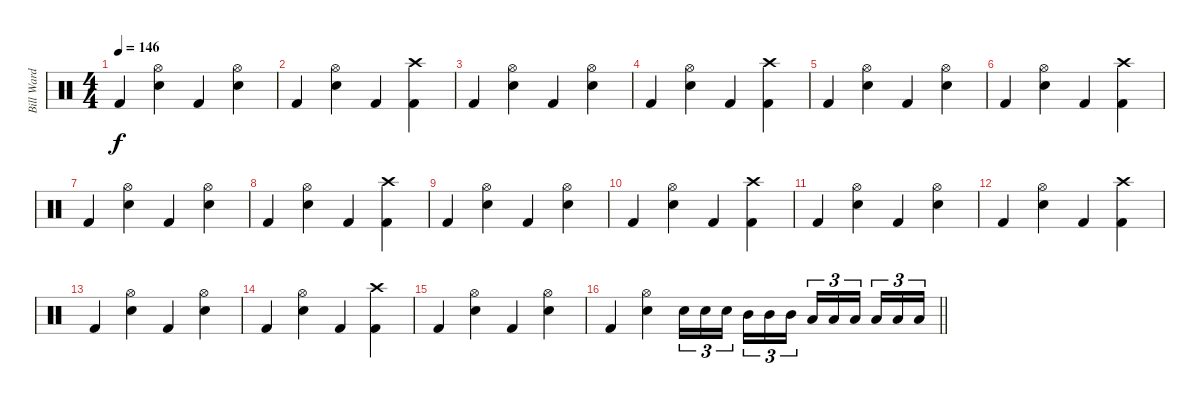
\track ("Bill Ward" "Bill Ward") {instrument percussion}
\staff {score}
\articulation defaults
\ts (4 4)
\tempo 146
\clef neutral
\ks c "Kick (hit) 2".4{dy f}
("Hi-Hat (open)" "Snare (hit) 2").4 "Kick (hit) 2".4 ("Hi-Hat (open)" "Snare (hit) 2").4 |
"Kick (hit) 2".4 ("Hi-Hat (open)" "Snare (hit) 2").4 "Kick (hit) 2".4 ("Crash high (hit)" "Kick (hit) 2").4 |
"Kick (hit) 2".4 ("Hi-Hat (open)" "Snare (hit) 2").4 "Kick (hit) 2".4 ("Hi-Hat (open)" "Snare (hit) 2").4 |
"Kick (hit) 2".4 ("Hi-Hat (open)" "Snare (hit) 2").4 "Kick (hit) 2".4 ("Crash high (hit)" "Kick (hit) 2").4 |
"Kick (hit) 2".4 ("Hi-Hat (open)" "Snare (hit) 2").4 "Kick (hit) 2".4 ("Hi-Hat (open)" "Snare (hit) 2").4 |
"Kick (hit) 2".4 ("Hi-Hat (open)" "Snare (hit) 2").4 "Kick (hit) 2".4 ("Crash high (hit)" "Kick (hit) 2").4 |
"Kick (hit) 2".4 ("Hi-Hat (open)" "Snare (hit) 2").4 "Kick (hit) 2".4 ("Hi-Hat (open)" "Snare (hit) 2").4 |
"Kick (hit) 2".4 ("Hi-Hat (open)" "Snare (hit) 2").4 "Kick (hit) 2".4 ("Crash high (hit)" "Kick (hit) 2").4 |
"Kick (hit) 2".4 ("Hi-Hat (open)" "Snare (hit) 2").4 "Kick (hit) 2".4 ("Hi-Hat (open)" "Snare (hit) 2").4 |
"Kick (hit) 2".4 ("Hi-Hat (open)" "Snare (hit) 2").4 "Kick (hit) 2".4 ("Crash high (hit)" "Kick (hit) 2").4 |
"Kick (hit) 2".4 ("Hi-Hat (open)" "Snare (hit) 2").4 "Kick (hit) 2".4 ("Hi-Hat (open)" "Snare (hit) 2").4 |
"Kick (hit) 2".4 ("Hi-Hat (open)" "Snare (hit) 2").4 "Kick (hit) 2".4 ("Crash high (hit)" "Kick (hit) 2").4 |
"Kick (hit) 2".4 ("Hi-Hat (open)" "Snare (hit) 2").4 "Kick (hit) 2".4 ("Hi-Hat (open)" "Snare (hit) 2").4 |
"Kick (hit) 2".4 ("Hi-Hat (open)" "Snare (hit) 2").4 "Kick (hit) 2".4 ("Crash high (hit)" "Kick (hit) 2").4 |
"Kick (hit) 2".4 ("Hi-Hat (open)" "Snare (hit) 2").4 "Kick (hit) 2".4 ("Hi-Hat (open)" "Snare (hit) 2").4 |
\barLineRight lightlight "Kick (hit) 2".4
("Hi-Hat (open)" "Snare (hit) 2").4 "Snare (hit) 2".16{tu (3 2)} "Snare (hit) 2".16{tu (3 2)} "Snare (hit) 2".16{tu (3 2)} "Mid Tom (hit)".16{tu (3 2)} "Mid Tom (hit)".16{tu (3 2)} "Mid Tom (hit)".16{tu (3 2)} "Low Tom (hit)".16{tu (3 2)} "Low Tom (hit)".16{tu (3 2)} "Low Tom (hit)".16{tu (3 2)} "Low Floor Tom (hit)".16{tu (3 2)} "Low Floor Tom (hit)".16{tu (3 2)} "Low Floor Tom (hit)".16{tu (3 2)}
